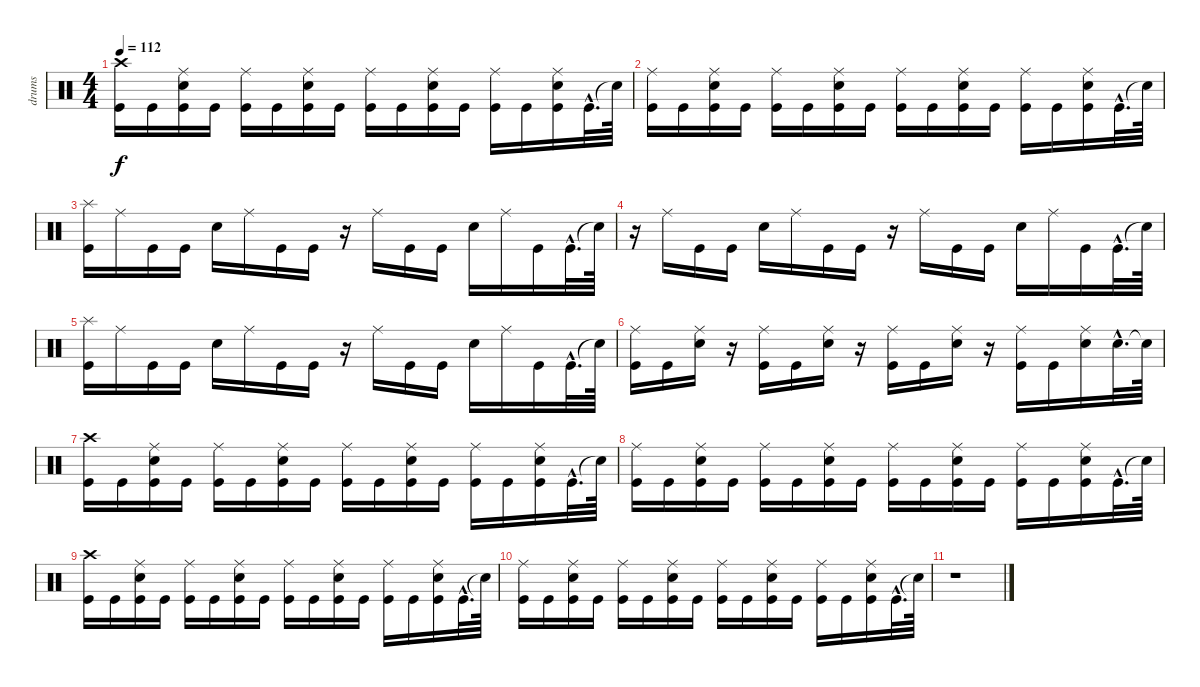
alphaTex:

\track ("drums" "drums") {instrument percussion}
\staff {score}
\articulation defaults
\ts (4 4)
\tempo 112
\clef neutral
\ks c
("Crash high (hit)" "Kick (hit)").16{dy f} "Kick (hit)".16 ("Ride (middle)" "Kick (hit)" "Electric Snare (hit)").16 "Kick (hit)".16 ("Ride (middle)" "Kick (hit)").16 "Kick (hit)".16 ("Ride (middle)" "Kick (hit)" "Electric Snare (hit)").16 "Kick (hit)".16 ("Ride (middle)" "Kick (hit)").16 "Kick (hit)".16 ("Ride (middle)" "Kick (hit)" "Electric Snare (hit)").16 "Kick (hit)".16 ("Ride (middle)" "Kick (hit)").16 "Kick (hit)".16 ("Ride (middle)" "Kick (hit)" "Electric Snare (hit)").16 "Kick (hit)"{hac}.32{d} "Snare (hit)"{t}.64 |
("Ride (middle)" "Kick (hit)").16 "Kick (hit)".16 ("Ride (middle)" "Kick (hit)" "Electric Snare (hit)").16 "Kick (hit)".16 ("Ride (middle)" "Kick (hit)").16 "Kick (hit)".16 ("Ride (middle)" "Kick (hit)" "Electric Snare (hit)").16 "Kick (hit)".16 ("Ride (middle)" "Kick (hit)").16 "Kick (hit)".16 ("Ride (middle)" "Kick (hit)" "Electric Snare (hit)").16 "Kick (hit)".16 ("Ride (middle)" "Kick (hit)").16 "Kick (hit)".16 ("Ride (middle)" "Kick (hit)" "Electric Snare (hit)").16 "Kick (hit)"{hac}.32{d} "Snare (hit)"{t}.64 |
("Splash (hit)" "Kick (hit)").16 "Ride (middle)".16{volume 16} "Kick (hit)".16{volume 16} "Kick (hit)".16{volume 16} "Electric Snare (hit)".16{volume 16} "Ride (middle)".16{volume 15} "Kick (hit)".16{volume 15} "Kick (hit)".16{volume 15} r.16 "Ride (middle)".16{volume 15} "Kick (hit)".16{volume 15} "Kick (hit)".16{volume 15} "Electric Snare (hit)".16{volume 14} "Ride (middle)".16{volume 14} "Kick (hit)".16{volume 14} "Kick (hit)"{hac}.32{d volume 14} "Snare (hit)"{t}.64 |
r.16 "Ride (middle)".16{volume 14} "Kick (hit)".16{volume 14} "Kick (hit)".16{volume 14} "Electric Snare (hit)".16{volume 14} "Ride (middle)".16{volume 13} "Kick (hit)".16{volume 13} "Kick (hit)".16{volume 13} r.16 "Ride (middle)".16{volume 13} "Kick (hit)".16{volume 13} "Kick (hit)".16{volume 13} "Electric Snare (hit)".16{volume 12} "Ride (middle)".16{volume 12} "Kick (hit)".16{volume 12} "Kick (hit)"{hac}.32{d volume 12} "Snare (hit)"{t}.64 |
("Splash (hit)" "Kick (hit)").16{volume 12} "Ride (middle)".16{volume 12} "Kick (hit)".16{volume 12} "Kick (hit)".16{volume 12} "Electric Snare (hit)".16{volume 12} "Ride (middle)".16{volume 11} "Kick (hit)".16{volume 11} "Kick (hit)".16{volume 11} r.16 "Ride (middle)".16{volume 11} "Kick (hit)".16{volume 11} "Kick (hit)".16{volume 11} "Electric Snare (hit)".16{volume 10} "Ride (middle)".16{volume 10} "Kick (hit)".16{volume 10} "Kick (hit)"{hac}.32{d volume 10} "Snare (hit)"{t}.64 |
("Ride (middle)" "Kick (hit)").16{volume 10} "Kick (hit)".16{volume 10} ("Ride (middle)" "Electric Snare (hit)").16{volume 10} r.16 ("Ride (middle)" "Kick (hit)").16{volume 10} "Kick (hit)".16{volume 9} ("Ride (middle)" "Electric Snare (hit)").16{volume 9} r.16 ("Ride (middle)" "Kick (hit)").16{volume 9} "Kick (hit)".16{volume 9} ("Ride (middle)" "Electric Snare (hit)").16{volume 9} r.16 ("Ride (middle)" "Kick (hit)").16{volume 8} "Kick (hit)".16{volume 8} ("Ride (middle)" "Electric Snare (hit)").16{volume 8} "Electric Snare (hit)"{hac}.32{d volume 8} "Snare (hit)"{t}.64 |
("Crash high (hit)" "Kick (hit)").16{volume 8} "Kick (hit)".16{volume 8} ("Ride (middle)" "Kick (hit)" "Electric Snare (hit)").16{volume 8} "Kick (hit)".16{volume 8} ("Ride (middle)" "Kick (hit)").16{volume 8} "Kick (hit)".16{volume 7} ("Ride (middle)" "Kick (hit)" "Electric Snare (hit)").16{volume 7} "Kick (hit)".16{volume 7} ("Ride (middle)" "Kick (hit)").16{volume 7} "Kick (hit)".16{volume 7} ("Ride (middle)" "Kick (hit)" "Electric Snare (hit)").16{volume 7} "Kick (hit)".16{volume 7} ("Ride (middle)" "Kick (hit)").16{volume 6} "Kick (hit)".16{volume 6} ("Ride (middle)" "Kick (hit)" "Electric Snare (hit)").16 "Kick (hit)"{hac}.32{d volume 6} "Snare (hit)"{t}.64 |
("Ride (middle)" "Kick (hit)").16 "Kick (hit)".16{volume 6} ("Ride (middle)" "Kick (hit)" "Electric Snare (hit)").16 "Kick (hit)".16{volume 6} ("Ride (middle)" "Kick (hit)").16 "Kick (hit)".16{volume 5} ("Ride (middle)" "Kick (hit)" "Electric Snare (hit)").16 "Kick (hit)".16{volume 5} ("Ride (middle)" "Kick (hit)").16 "Kick (hit)".16{volume 5} ("Ride (middle)" "Kick (hit)" "Electric Snare (hit)").16 "Kick (hit)".16{volume 5} ("Ride (middle)" "Kick (hit)").16 "Kick (hit)".16{volume 4} ("Ride (middle)" "Kick (hit)" "Electric Snare (hit)").16 "Kick (hit)"{hac}.32{d volume 4} "Snare (hit)"{t}.64 |
("Crash high (hit)" "Kick (hit)").16 "Kick (hit)".16{volume 4} ("Ride (middle)" "Kick (hit)" "Electric Snare (hit)").16 "Kick (hit)".16{volume 4} ("Ride (middle)" "Kick (hit)").16 "Kick (hit)".16{volume 3} ("Ride (middle)" "Kick (hit)" "Electric Snare (hit)").16 "Kick (hit)".16{volume 3} ("Ride (middle)" "Kick (hit)").16{volume 3} "Kick (hit)".16{volume 3} ("Ride (middle)" "Kick (hit)" "Electric Snare (hit)").16{volume 3} "Kick (hit)".16{volume 3} ("Ride (middle)" "Kick (hit)").16{volume 3} "Kick (hit)".16{volume 2} ("Ride (middle)" "Kick (hit)" "Electric Snare (hit)").16{volume 2} "Kick (hit)"{hac}.32{d volume 2} "Snare (hit)"{t}.64 |
("Ride (middle)" "Kick (hit)").16{volume 2} "Kick (hit)".16{volume 2} ("Ride (middle)" "Kick (hit)" "Electric Snare (hit)").16{volume 2} "Kick (hit)".16{volume 2} ("Ride (middle)" "Kick (hit)").16{volume 2} "Kick (hit)".16{volume 2} ("Ride (middle)" "Kick (hit)" "Electric Snare (hit)").16{volume 1} "Kick (hit)".16{volume 1} ("Ride (middle)" "Kick (hit)").16{volume 1} "Kick (hit)".16{volume 1} ("Ride (middle)" "Kick (hit)" "Electric Snare (hit)").16{volume 1} "Kick (hit)".16{volume 1} ("Ride (middle)" "Kick (hit)").16{volume 1} "Kick (hit)".16{volume 0} ("Ride (middle)" "Kick (hit)" "Electric Snare (hit)").16{volume 0} "Kick (hit)"{hac}.32{d volume 0} "Snare (hit)"{t}.64 |
r.1
